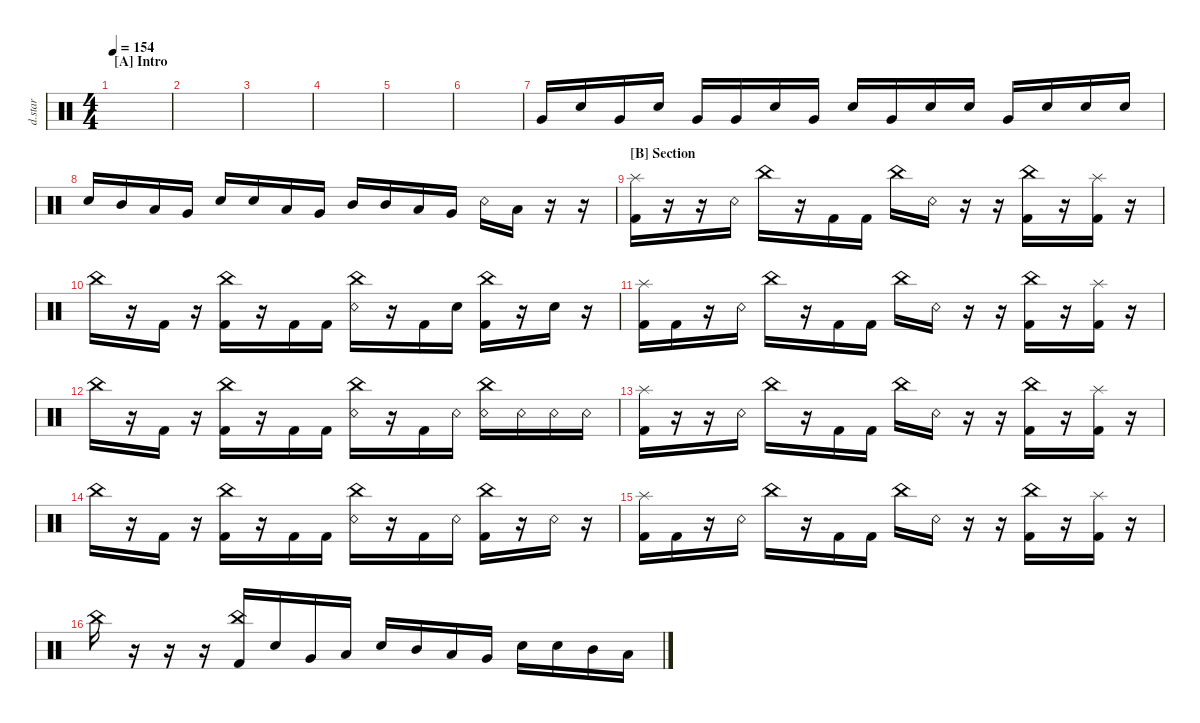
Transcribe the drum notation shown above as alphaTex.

\defaultSystemsLayout 4
\hideDynamics
\bracketExtendMode nobrackets
\otherSystemsTrackNameOrientation horizontal
\track ("Drumkit Star" "d.star") {instrument percussion}
\staff {score}
\articulation defaults
\ts (4 4)
\section ("A" "Intro")
\tempo 154
\clef neutral
\ks c
|
|
|
|
|
|
"Very Low Tom (hit)".16{beam Up} "Snare (hit) 2".16{beam Up} "Very Low Tom (hit)".16{beam Up} "Snare (hit) 2".16{beam Up} "Very Low Tom (hit)".16{beam Up} "Very Low Tom (hit)".16{beam Up} "Snare (hit) 2".16{beam Up} "Very Low Tom (hit)".16{beam Up} "Snare (hit) 2".16{beam Up} "Very Low Tom (hit)".16{beam Up} "Snare (hit) 2".16{beam Up} "Snare (hit) 2".16{beam Up} "Very Low Tom (hit)".16{beam Up} "Snare (hit) 2".16{beam Up} "Snare (hit) 2".16{beam Up} "Snare (hit) 2".16{beam Up} |
"Snare (hit) 2".16{beam Up} "Mid Tom (hit)".16{beam Up} "Low Tom (hit)".16{beam Up} "Very Low Tom (hit)".16{beam Up} "Snare (hit) 2".16{beam Up} "Snare (hit) 2".16{beam Up} "Low Tom (hit)".16{beam Up} "Very Low Tom (hit)".16{beam Up} "Mid Tom (hit)".16{beam Up} "Mid Tom (hit)".16{beam Up} "Low Tom (hit)".16{beam Up} "Very Low Tom (hit)".16{beam Up} "Snare (rim shot)".16{beam Down} "Low Tom (hit)".16{beam Down} r.16{beam Down} r.16{beam Down} |
\section ("B" "Section")
("Kick (hit) 2" "Splash (hit)").16{beam Down} r.16{beam Down} r.16{beam Down} "Snare (rim shot)".16{beam Down} "China (hit)".16{beam Down} r.16{beam Down} "Kick (hit) 2".16{beam Down} "Kick (hit) 2".16{beam Down} "China (hit)".16{beam Down} "Snare (rim shot)".16{beam Down} r.16{beam Down} r.16{beam Down} ("Kick (hit) 2" "China (hit)").16{beam Down} r.16{beam Down} ("Kick (hit) 2" "Splash (hit)").16{beam Down} r.16{beam Down} |
"China (hit)".16{beam Down} r.16{beam Down} "Kick (hit) 2".16{beam Down} r.16{beam Down} ("Kick (hit) 2" "China (hit)").16{beam Down} r.16{beam Down} "Kick (hit) 2".16{beam Down} "Kick (hit) 2".16{beam Down} ("Snare (rim shot)" "China (hit)").16{beam Down} r.16{beam Down} "Kick (hit) 2".16{beam Down} "Snare (hit) 2".16{beam Down} ("Kick (hit) 2" "China (hit)").16{beam Down} r.16{beam Down} "Snare (hit) 2".16{beam Down} r.16{beam Down} |
("Kick (hit) 2" "Splash (hit)").16{beam Down} "Kick (hit) 2".16{beam Down} r.16{beam Down} "Snare (rim shot)".16{beam Down} "China (hit)".16{beam Down} r.16{beam Down} "Kick (hit) 2".16{beam Down} "Kick (hit) 2".16{beam Down} "China (hit)".16{beam Down} "Snare (rim shot)".16{beam Down} r.16{beam Down} r.16{beam Down} ("Kick (hit) 2" "China (hit)").16{beam Down} r.16{beam Down} ("Kick (hit) 2" "Splash (hit)").16{beam Down} r.16{beam Down} |
"China (hit)".16{beam Down} r.16{beam Down} "Kick (hit) 2".16{beam Down} r.16{beam Down} ("Kick (hit) 2" "China (hit)").16{beam Down} r.16{beam Down} "Kick (hit) 2".16{beam Down} "Kick (hit) 2".16{beam Down} ("Snare (rim shot)" "China (hit)").16{beam Down} r.16{beam Down} "Kick (hit) 2".16{beam Down} "Snare (rim shot)".16{beam Down} ("Snare (rim shot)" "China (hit)").16{beam Down} "Snare (rim shot)".16{beam Down} "Snare (rim shot)".16{beam Down} "Snare (rim shot)".16{beam Down} |
("Kick (hit) 2" "Splash (hit)").16{beam Down} r.16{beam Down} r.16{beam Down} "Snare (rim shot)".16{beam Down} "China (hit)".16{beam Down} r.16{beam Down} "Kick (hit) 2".16{beam Down} "Kick (hit) 2".16{beam Down} "China (hit)".16{beam Down} "Snare (rim shot)".16{beam Down} r.16{beam Down} r.16{beam Down} ("Kick (hit) 2" "China (hit)").16{beam Down} r.16{beam Down} ("Kick (hit) 2" "Splash (hit)").16{beam Down} r.16{beam Down} |
"China (hit)".16{beam Down} r.16{beam Down} "Kick (hit) 2".16{beam Down} r.16{beam Down} ("Kick (hit) 2" "China (hit)").16{beam Down} r.16{beam Down} "Kick (hit) 2".16{beam Down} "Kick (hit) 2".16{beam Down} ("Snare (rim shot)" "China (hit)").16{beam Down} r.16{beam Down} "Kick (hit) 2".16{beam Down} "Snare (rim shot)".16{beam Down} ("Kick (hit) 2" "China (hit)").16{beam Down} r.16{beam Down} "Snare (rim shot)".16{beam Down} r.16{beam Down} |
("Kick (hit) 2" "Splash (hit)").16{beam Down} "Kick (hit) 2".16{beam Down} r.16{beam Down} "Snare (rim shot)".16{beam Down} "China (hit)".16{beam Down} r.16{beam Down} "Kick (hit) 2".16{beam Down} "Kick (hit) 2".16{beam Down} "China (hit)".16{beam Down} "Snare (rim shot)".16{beam Down} r.16{beam Down} r.16{beam Down} ("Kick (hit) 2" "China (hit)").16{beam Down} r.16{beam Down} ("Kick (hit) 2" "Splash (hit)").16{beam Down} r.16{beam Down} |
"China (hit)".16{beam Down} r.16{beam Down} r.16{beam Down} r.16{beam Down} ("China (hit)" "Kick (hit) 2").16{beam Up} "Snare (hit) 2".16{beam Up} "Very Low Tom (hit)".16{beam Up} "Low Tom (hit)".16{beam Up} "Snare (hit) 2".16{beam Up} "Mid Tom (hit)".16{beam Up} "Low Tom (hit)".16{beam Up} "Very Low Tom (hit)".16{beam Up} "Snare (hit) 2".16{beam Down} "Snare (hit) 2".16{beam Down} "Mid Tom (hit)".16{beam Down} "Low Tom (hit)".16{beam Down}
